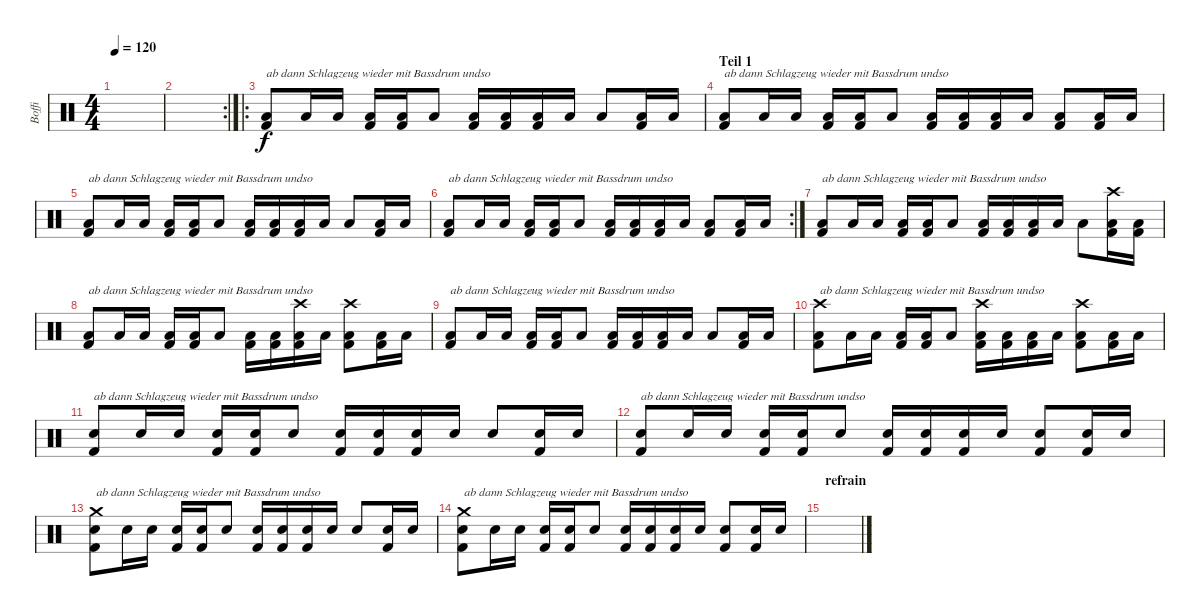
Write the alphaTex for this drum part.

\track ("Boffi" "Boffi") {instrument percussion}
\staff {score}
\articulation defaults
\ts (4 4)
\tempo 120
\clef neutral
\ks c
|
\rc 2
|
\ro
("Kick (hit) 2" "Low Floor Tom (hit)").8{txt "ab dann Schlagzeug wieder mit Bassdrum undso"} "Low Floor Tom (hit)".16 "Low Floor Tom (hit)".16 ("Kick (hit) 2" "Low Floor Tom (hit)").16 ("Kick (hit) 2" "Low Floor Tom (hit)").16 "Low Floor Tom (hit)".8 ("Kick (hit) 2" "Low Floor Tom (hit)").16 ("Kick (hit) 2" "Low Floor Tom (hit)").16 ("Kick (hit) 2" "Low Floor Tom (hit)").16 "Low Floor Tom (hit)".16 "Low Floor Tom (hit)".8 ("Kick (hit) 2" "Low Floor Tom (hit)").16 "Low Floor Tom (hit)".16 |
\section ("" "Teil 1")
("Kick (hit) 2" "Low Floor Tom (hit)").8{txt "ab dann Schlagzeug wieder mit Bassdrum undso"} "Low Floor Tom (hit)".16 "Low Floor Tom (hit)".16 ("Kick (hit) 2" "Low Floor Tom (hit)").16 ("Kick (hit) 2" "Low Floor Tom (hit)").16 "Low Floor Tom (hit)".8 ("Kick (hit) 2" "Low Floor Tom (hit)").16 ("Kick (hit) 2" "Low Floor Tom (hit)").16 ("Kick (hit) 2" "Low Floor Tom (hit)").16 "Low Floor Tom (hit)".16 ("Kick (hit) 2" "Low Floor Tom (hit)").8 ("Kick (hit) 2" "Low Floor Tom (hit)").16 "Low Floor Tom (hit)".16 |
("Kick (hit) 2" "Low Floor Tom (hit)").8{txt "ab dann Schlagzeug wieder mit Bassdrum undso"} "Low Floor Tom (hit)".16 "Low Floor Tom (hit)".16 ("Kick (hit) 2" "Low Floor Tom (hit)").16 ("Kick (hit) 2" "Low Floor Tom (hit)").16 "Low Floor Tom (hit)".8 ("Kick (hit) 2" "Low Floor Tom (hit)").16 ("Kick (hit) 2" "Low Floor Tom (hit)").16 ("Kick (hit) 2" "Low Floor Tom (hit)").16 "Low Floor Tom (hit)".16 "Low Floor Tom (hit)".8 ("Kick (hit) 2" "Low Floor Tom (hit)").16 "Low Floor Tom (hit)".16 |
\rc 2
("Kick (hit) 2" "Low Floor Tom (hit)").8{txt "ab dann Schlagzeug wieder mit Bassdrum undso"} "Low Floor Tom (hit)".16 "Low Floor Tom (hit)".16 ("Kick (hit) 2" "Low Floor Tom (hit)").16 ("Kick (hit) 2" "Low Floor Tom (hit)").16 "Low Floor Tom (hit)".8 ("Kick (hit) 2" "Low Floor Tom (hit)").16 ("Kick (hit) 2" "Low Floor Tom (hit)").16 ("Kick (hit) 2" "Low Floor Tom (hit)").16 "Low Floor Tom (hit)".16 ("Kick (hit) 2" "Low Floor Tom (hit)").8 ("Kick (hit) 2" "Low Floor Tom (hit)").16 "Low Floor Tom (hit)".16 |
("Kick (hit) 2" "Low Floor Tom (hit)").8{txt "ab dann Schlagzeug wieder mit Bassdrum undso"} "Low Floor Tom (hit)".16 "Low Floor Tom (hit)".16 ("Kick (hit) 2" "Low Floor Tom (hit)").16 ("Kick (hit) 2" "Low Floor Tom (hit)").16 "Low Floor Tom (hit)".8 ("Kick (hit) 2" "Low Floor Tom (hit)").16 ("Kick (hit) 2" "Low Floor Tom (hit)").16 ("Kick (hit) 2" "Low Floor Tom (hit)").16 "Low Floor Tom (hit)".16 "Low Floor Tom (hit)".8 ("Crash high (hit)" "Kick (hit) 2" "Low Floor Tom (hit)").16 ("Kick (hit) 2" "Low Floor Tom (hit)").16 |
("Kick (hit) 2" "Low Floor Tom (hit)").8{txt "ab dann Schlagzeug wieder mit Bassdrum undso"} "Low Floor Tom (hit)".16 "Low Floor Tom (hit)".16 ("Kick (hit) 2" "Low Floor Tom (hit)").16 ("Kick (hit) 2" "Low Floor Tom (hit)").16 "Low Floor Tom (hit)".8 ("Kick (hit) 2" "Low Floor Tom (hit)").16 ("Kick (hit) 2" "Low Floor Tom (hit)").16 ("Crash high (hit)" "Kick (hit) 2" "Low Floor Tom (hit)").16 "Low Floor Tom (hit)".16 ("Crash high (hit)" "Kick (hit) 2" "Low Floor Tom (hit)").8 ("Kick (hit) 2" "Low Floor Tom (hit)").16 "Low Floor Tom (hit)".16 |
("Kick (hit) 2" "Low Floor Tom (hit)").8{txt "ab dann Schlagzeug wieder mit Bassdrum undso"} "Low Floor Tom (hit)".16 "Low Floor Tom (hit)".16 ("Kick (hit) 2" "Low Floor Tom (hit)").16 ("Kick (hit) 2" "Low Floor Tom (hit)").16 "Low Floor Tom (hit)".8 ("Kick (hit) 2" "Low Floor Tom (hit)").16 ("Kick (hit) 2" "Low Floor Tom (hit)").16 ("Kick (hit) 2" "Low Floor Tom (hit)").16 "Low Floor Tom (hit)".16 "Low Floor Tom (hit)".8 ("Kick (hit) 2" "Low Floor Tom (hit)").16 "Low Floor Tom (hit)".16 |
("Crash high (hit)" "Kick (hit) 2" "Low Floor Tom (hit)").8{txt "ab dann Schlagzeug wieder mit Bassdrum undso"} "Low Floor Tom (hit)".16 "Low Floor Tom (hit)".16 ("Kick (hit) 2" "Low Floor Tom (hit)").16 ("Kick (hit) 2" "Low Floor Tom (hit)").16 "Low Floor Tom (hit)".8 ("Crash high (hit)" "Kick (hit) 2" "Low Floor Tom (hit)").16 ("Kick (hit) 2" "Low Floor Tom (hit)").16 ("Kick (hit) 2" "Low Floor Tom (hit)").16 "Low Floor Tom (hit)".16 ("Crash high (hit)" "Kick (hit) 2" "Low Floor Tom (hit)").8 ("Kick (hit) 2" "Low Floor Tom (hit)").16 "Low Floor Tom (hit)".16 |
("Kick (hit) 2" "Electric Snare (hit)").8{txt "ab dann Schlagzeug wieder mit Bassdrum undso"} "Electric Snare (hit)".16 "Electric Snare (hit)".16 ("Kick (hit) 2" "Electric Snare (hit)").16 ("Kick (hit) 2" "Electric Snare (hit)").16 "Electric Snare (hit)".8 ("Kick (hit) 2" "Electric Snare (hit)").16 ("Kick (hit) 2" "Electric Snare (hit)").16 ("Kick (hit) 2" "Electric Snare (hit)").16 "Electric Snare (hit)".16 "Electric Snare (hit)".8 ("Kick (hit) 2" "Electric Snare (hit)").16 "Electric Snare (hit)".16 |
("Kick (hit) 2" "Electric Snare (hit)").8{txt "ab dann Schlagzeug wieder mit Bassdrum undso"} "Electric Snare (hit)".16 "Electric Snare (hit)".16 ("Kick (hit) 2" "Electric Snare (hit)").16 ("Kick (hit) 2" "Electric Snare (hit)").16 "Electric Snare (hit)".8 ("Kick (hit) 2" "Electric Snare (hit)").16 ("Kick (hit) 2" "Electric Snare (hit)").16 ("Kick (hit) 2" "Electric Snare (hit)").16 "Electric Snare (hit)".16 ("Kick (hit) 2" "Electric Snare (hit)").8 ("Kick (hit) 2" "Electric Snare (hit)").16 "Electric Snare (hit)".16 |
("Crash medium (hit)" "Kick (hit) 2" "Electric Snare (hit)").8{txt "ab dann Schlagzeug wieder mit Bassdrum undso"} "Electric Snare (hit)".16 "Electric Snare (hit)".16 ("Kick (hit) 2" "Electric Snare (hit)").16 ("Kick (hit) 2" "Electric Snare (hit)").16 "Electric Snare (hit)".8 ("Kick (hit) 2" "Electric Snare (hit)").16 ("Kick (hit) 2" "Electric Snare (hit)").16 ("Kick (hit) 2" "Electric Snare (hit)").16 "Electric Snare (hit)".16 "Electric Snare (hit)".8 ("Kick (hit) 2" "Electric Snare (hit)").16 "Electric Snare (hit)".16 |
("Crash medium (hit)" "Kick (hit) 2" "Electric Snare (hit)").8{txt "ab dann Schlagzeug wieder mit Bassdrum undso"} "Electric Snare (hit)".16 "Electric Snare (hit)".16 ("Kick (hit) 2" "Electric Snare (hit)").16 ("Kick (hit) 2" "Electric Snare (hit)").16 "Electric Snare (hit)".8 ("Kick (hit) 2" "Electric Snare (hit)").16 ("Kick (hit) 2" "Electric Snare (hit)").16 ("Kick (hit) 2" "Electric Snare (hit)").16 "Electric Snare (hit)".16 ("Kick (hit) 2" "Electric Snare (hit)").8 ("Kick (hit) 2" "Electric Snare (hit)").16 "Electric Snare (hit)".16 |
\section ("" "refrain")
